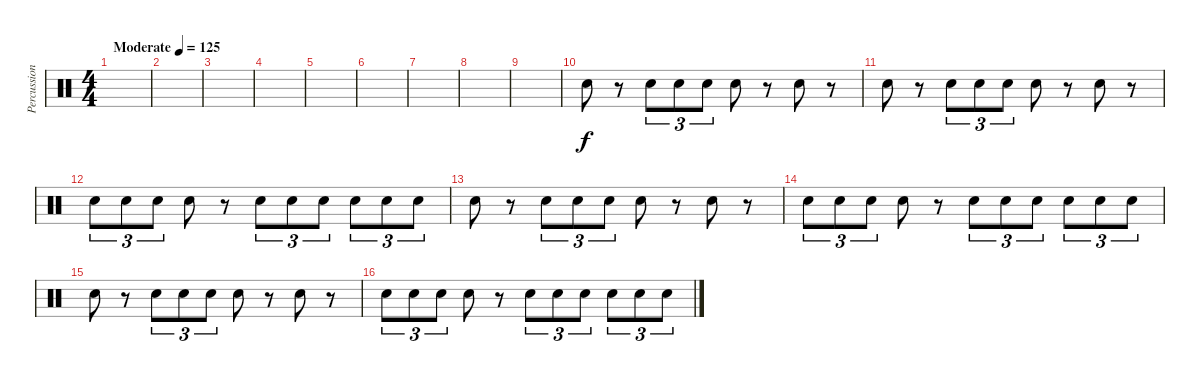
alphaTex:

\track ("Percussion" "Percussion") {instrument percussion}
\staff {score}
\articulation defaults
\ts (4 4)
\tempo (125 "Moderate")
\clef neutral
\ks c
|
|
|
|
|
|
|
|
|
"Electric Snare (hit)".8 r.8 "Electric Snare (hit)".8{tu (3 2)} "Electric Snare (hit)".8{tu (3 2)} "Electric Snare (hit)".8{tu (3 2)} "Electric Snare (hit)".8 r.8 "Electric Snare (hit)".8 r.8 |
"Electric Snare (hit)".8 r.8 "Electric Snare (hit)".8{tu (3 2)} "Electric Snare (hit)".8{tu (3 2)} "Electric Snare (hit)".8{tu (3 2)} "Electric Snare (hit)".8 r.8 "Electric Snare (hit)".8 r.8 |
"Electric Snare (hit)".8{tu (3 2)} "Electric Snare (hit)".8{tu (3 2)} "Electric Snare (hit)".8{tu (3 2)} "Electric Snare (hit)".8 r.8 "Electric Snare (hit)".8{tu (3 2)} "Electric Snare (hit)".8{tu (3 2)} "Electric Snare (hit)".8{tu (3 2)} "Electric Snare (hit)".8{tu (3 2)} "Electric Snare (hit)".8{tu (3 2)} "Electric Snare (hit)".8{tu (3 2)} |
"Electric Snare (hit)".8 r.8 "Electric Snare (hit)".8{tu (3 2)} "Electric Snare (hit)".8{tu (3 2)} "Electric Snare (hit)".8{tu (3 2)} "Electric Snare (hit)".8 r.8 "Electric Snare (hit)".8 r.8 |
"Electric Snare (hit)".8{tu (3 2)} "Electric Snare (hit)".8{tu (3 2)} "Electric Snare (hit)".8{tu (3 2)} "Electric Snare (hit)".8 r.8 "Electric Snare (hit)".8{tu (3 2)} "Electric Snare (hit)".8{tu (3 2)} "Electric Snare (hit)".8{tu (3 2)} "Electric Snare (hit)".8{tu (3 2)} "Electric Snare (hit)".8{tu (3 2)} "Electric Snare (hit)".8{tu (3 2)} |
"Electric Snare (hit)".8 r.8 "Electric Snare (hit)".8{tu (3 2)} "Electric Snare (hit)".8{tu (3 2)} "Electric Snare (hit)".8{tu (3 2)} "Electric Snare (hit)".8 r.8 "Electric Snare (hit)".8 r.8 |
"Electric Snare (hit)".8{tu (3 2)} "Electric Snare (hit)".8{tu (3 2)} "Electric Snare (hit)".8{tu (3 2)} "Electric Snare (hit)".8 r.8 "Electric Snare (hit)".8{tu (3 2)} "Electric Snare (hit)".8{tu (3 2)} "Electric Snare (hit)".8{tu (3 2)} "Electric Snare (hit)".8{tu (3 2)} "Electric Snare (hit)".8{tu (3 2)} "Electric Snare (hit)".8{tu (3 2)}
